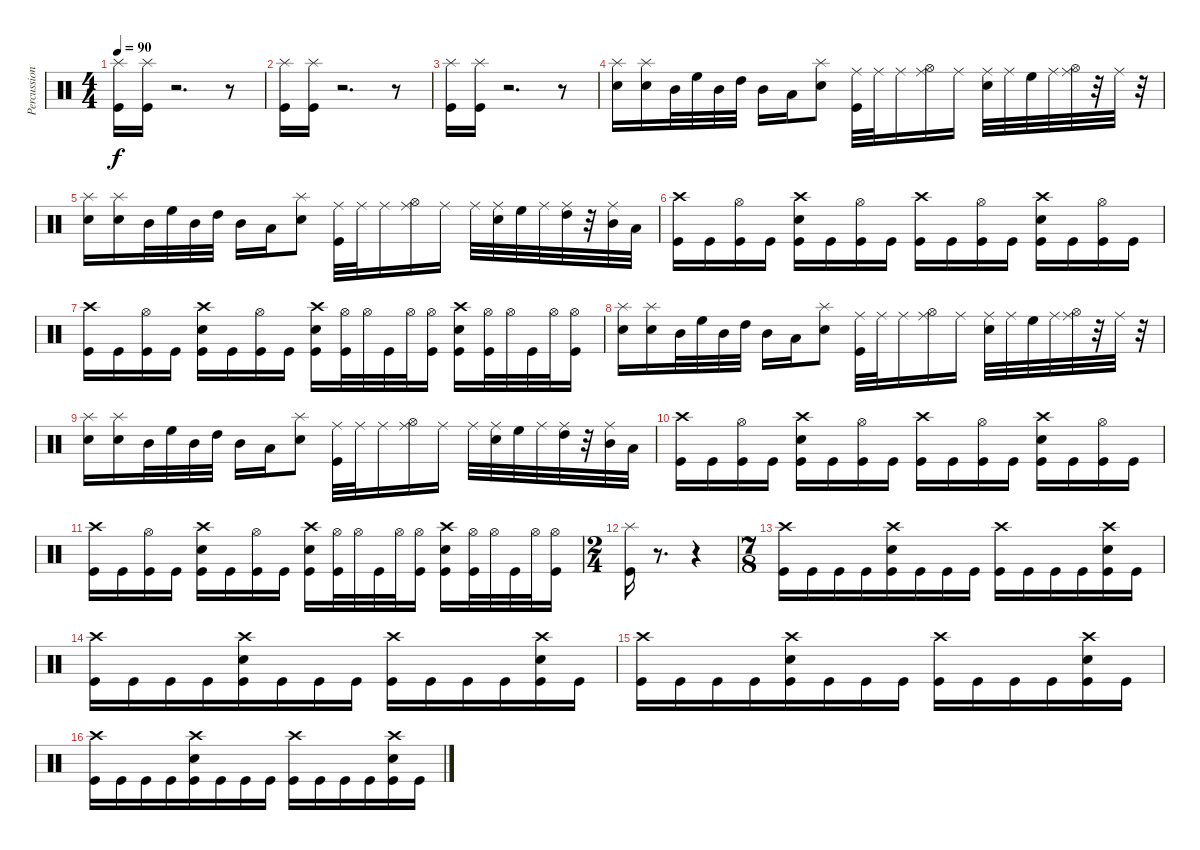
\track ("Percussions" "Percussion") {instrument percussion}
\staff {score}
\articulation defaults
\ts (4 4)
\tempo 90
\clef neutral
\ks c
("Splash (hit)" "Kick (hit)").16{dy f} ("Splash (hit)" "Kick (hit)").16 r.2{d} r.8 |
("Splash (hit)" "Kick (hit)").16 ("Splash (hit)" "Kick (hit)").16 r.2{d} r.8 |
("Splash (hit)" "Kick (hit)").16 ("Splash (hit)" "Kick (hit)").16 r.2{d} r.8 |
("Splash (hit)" "Electric Snare (hit)").16 ("Splash (hit)" "Electric Snare (hit)").16 "Mid Tom (hit)".32 "High Floor Tom (hit)".32 "Mid Tom (hit)".32 "High Tom (hit)".32 "Mid Tom (hit)".16 "Low Floor Tom (hit)".16 ("Splash (hit)" "Electric Snare (hit)").8 ("Ride (middle)" "Kick (hit)").32 "Ride (middle)".32 "Ride (middle)".16 ("Ride (middle)" "Hi-Hat (open)").16 "Ride (middle)".16 ("Ride (middle)" "Electric Snare (hit)").32 "Ride (middle)".32 "High Floor Tom (hit)".32 "Ride (middle)".32 ("Ride (middle)" "Hi-Hat (open)").32 r.32 "Ride (middle)".32 r.32 |
("Splash (hit)" "Electric Snare (hit)").16 ("Splash (hit)" "Electric Snare (hit)").16 "Mid Tom (hit)".32 "High Floor Tom (hit)".32 "Mid Tom (hit)".32 "High Tom (hit)".32 "Mid Tom (hit)".16 "Low Floor Tom (hit)".16 ("Splash (hit)" "Electric Snare (hit)").8 ("Ride (middle)" "Kick (hit)").32 "Ride (middle)".32 "Ride (middle)".16 ("Ride (middle)" "Hi-Hat (open)").16 "Ride (middle)".16 "Ride (middle)".32 ("Ride (middle)" "Electric Snare (hit)").32 "High Floor Tom (hit)".32 "Ride (middle)".32 ("Ride (middle)" "High Tom (hit)").32 r.32 ("Ride (middle)" "Mid Tom (hit)").32 "Low Floor Tom (hit)".32 |
("Crash high (hit)" "Kick (hit)").16 "Kick (hit)".16 ("Hi-Hat (open)" "Kick (hit)").16 "Kick (hit)".16 ("Crash high (hit)" "Electric Snare (hit)" "Kick (hit)").16 "Kick (hit)".16 ("Hi-Hat (open)" "Kick (hit)").16 "Kick (hit)".16 ("Crash high (hit)" "Kick (hit)").16 "Kick (hit)".16 ("Hi-Hat (open)" "Kick (hit)").16 "Kick (hit)".16 ("Crash high (hit)" "Electric Snare (hit)" "Kick (hit)").16 "Kick (hit)".16 ("Hi-Hat (open)" "Kick (hit)").16 "Kick (hit)".16 |
("Crash high (hit)" "Kick (hit)").16 "Kick (hit)".16 ("Hi-Hat (open)" "Kick (hit)").16 "Kick (hit)".16 ("Crash high (hit)" "Electric Snare (hit)" "Kick (hit)").16 "Kick (hit)".16 ("Hi-Hat (open)" "Kick (hit)").16 "Kick (hit)".16 ("Crash high (hit)" "Electric Snare (hit)" "Kick (hit)").16 ("Hi-Hat (open)" "Kick (hit)").32 "Hi-Hat (open)".32 "Kick (hit)".32 "Hi-Hat (open)".32 ("Hi-Hat (open)" "Kick (hit)").16 ("Crash high (hit)" "Kick (hit)" "Electric Snare (hit)").16 ("Hi-Hat (open)" "Kick (hit)").32 "Hi-Hat (open)".32 "Kick (hit)".32 "Hi-Hat (open)".32 ("Hi-Hat (open)" "Kick (hit)").16 |
("Splash (hit)" "Electric Snare (hit)").16 ("Splash (hit)" "Electric Snare (hit)").16 "Mid Tom (hit)".32 "High Floor Tom (hit)".32 "Mid Tom (hit)".32 "High Tom (hit)".32 "Mid Tom (hit)".16 "Low Floor Tom (hit)".16 ("Splash (hit)" "Electric Snare (hit)").8 ("Ride (middle)" "Kick (hit)").32 "Ride (middle)".32 "Ride (middle)".16 ("Ride (middle)" "Hi-Hat (open)").16 "Ride (middle)".16 ("Ride (middle)" "Electric Snare (hit)").32 "Ride (middle)".32 "High Floor Tom (hit)".32 "Ride (middle)".32 ("Ride (middle)" "Hi-Hat (open)").32 r.32 "Ride (middle)".32 r.32 |
("Splash (hit)" "Electric Snare (hit)").16 ("Splash (hit)" "Electric Snare (hit)").16 "Mid Tom (hit)".32 "High Floor Tom (hit)".32 "Mid Tom (hit)".32 "High Tom (hit)".32 "Mid Tom (hit)".16 "Low Floor Tom (hit)".16 ("Splash (hit)" "Electric Snare (hit)").8 ("Ride (middle)" "Kick (hit)").32 "Ride (middle)".32 "Ride (middle)".16 ("Ride (middle)" "Hi-Hat (open)").16 "Ride (middle)".16 "Ride (middle)".32 ("Ride (middle)" "Electric Snare (hit)").32 "High Floor Tom (hit)".32 "Ride (middle)".32 ("Ride (middle)" "High Tom (hit)").32 r.32 ("Ride (middle)" "Mid Tom (hit)").32 "Low Floor Tom (hit)".32 |
("Crash high (hit)" "Kick (hit)").16 "Kick (hit)".16 ("Hi-Hat (open)" "Kick (hit)").16 "Kick (hit)".16 ("Crash high (hit)" "Electric Snare (hit)" "Kick (hit)").16 "Kick (hit)".16 ("Hi-Hat (open)" "Kick (hit)").16 "Kick (hit)".16 ("Crash high (hit)" "Kick (hit)").16 "Kick (hit)".16 ("Hi-Hat (open)" "Kick (hit)").16 "Kick (hit)".16 ("Crash high (hit)" "Electric Snare (hit)" "Kick (hit)").16 "Kick (hit)".16 ("Hi-Hat (open)" "Kick (hit)").16 "Kick (hit)".16 |
("Crash high (hit)" "Kick (hit)").16 "Kick (hit)".16 ("Hi-Hat (open)" "Kick (hit)").16 "Kick (hit)".16 ("Crash high (hit)" "Electric Snare (hit)" "Kick (hit)").16 "Kick (hit)".16 ("Hi-Hat (open)" "Kick (hit)").16 "Kick (hit)".16 ("Crash high (hit)" "Electric Snare (hit)" "Kick (hit)").16 ("Hi-Hat (open)" "Kick (hit)").32 "Hi-Hat (open)".32 "Kick (hit)".32 "Hi-Hat (open)".32 ("Hi-Hat (open)" "Kick (hit)").16 ("Crash high (hit)" "Kick (hit)" "Electric Snare (hit)").16 ("Hi-Hat (open)" "Kick (hit)").32 "Hi-Hat (open)".32 "Kick (hit)".32 "Hi-Hat (open)".32 ("Hi-Hat (open)" "Kick (hit)").16 |
\ts (2 4)
("Splash (hit)" "Kick (hit)").16 r.8{d} r.4 |
\ts (7 8)
("Crash high (hit)" "Kick (hit)").16 "Kick (hit)".16 "Kick (hit)".16 "Kick (hit)".16 ("Crash high (hit)" "Kick (hit)" "Electric Snare (hit)").16 "Kick (hit)".16 "Kick (hit)".16 "Kick (hit)".16 ("Crash high (hit)" "Kick (hit)").16 "Kick (hit)".16 "Kick (hit)".16 "Kick (hit)".16 ("Crash high (hit)" "Electric Snare (hit)" "Kick (hit)").16 "Kick (hit)".16 |
("Crash high (hit)" "Kick (hit)").16 "Kick (hit)".16 "Kick (hit)".16 "Kick (hit)".16 ("Crash high (hit)" "Kick (hit)" "Electric Snare (hit)").16 "Kick (hit)".16 "Kick (hit)".16 "Kick (hit)".16 ("Crash high (hit)" "Kick (hit)").16 "Kick (hit)".16 "Kick (hit)".16 "Kick (hit)".16 ("Crash high (hit)" "Electric Snare (hit)" "Kick (hit)").16 "Kick (hit)".16 |
("Crash high (hit)" "Kick (hit)").16 "Kick (hit)".16 "Kick (hit)".16 "Kick (hit)".16 ("Crash high (hit)" "Kick (hit)" "Electric Snare (hit)").16 "Kick (hit)".16 "Kick (hit)".16 "Kick (hit)".16 ("Crash high (hit)" "Kick (hit)").16 "Kick (hit)".16 "Kick (hit)".16 "Kick (hit)".16 ("Crash high (hit)" "Electric Snare (hit)" "Kick (hit)").16 "Kick (hit)".16 |
("Crash high (hit)" "Kick (hit)").16 "Kick (hit)".16 "Kick (hit)".16 "Kick (hit)".16 ("Crash high (hit)" "Kick (hit)" "Electric Snare (hit)").16 "Kick (hit)".16 "Kick (hit)".16 "Kick (hit)".16 ("Crash high (hit)" "Kick (hit)").16 "Kick (hit)".16 "Kick (hit)".16 "Kick (hit)".16 ("Crash high (hit)" "Electric Snare (hit)" "Kick (hit)").16 "Kick (hit)".16
